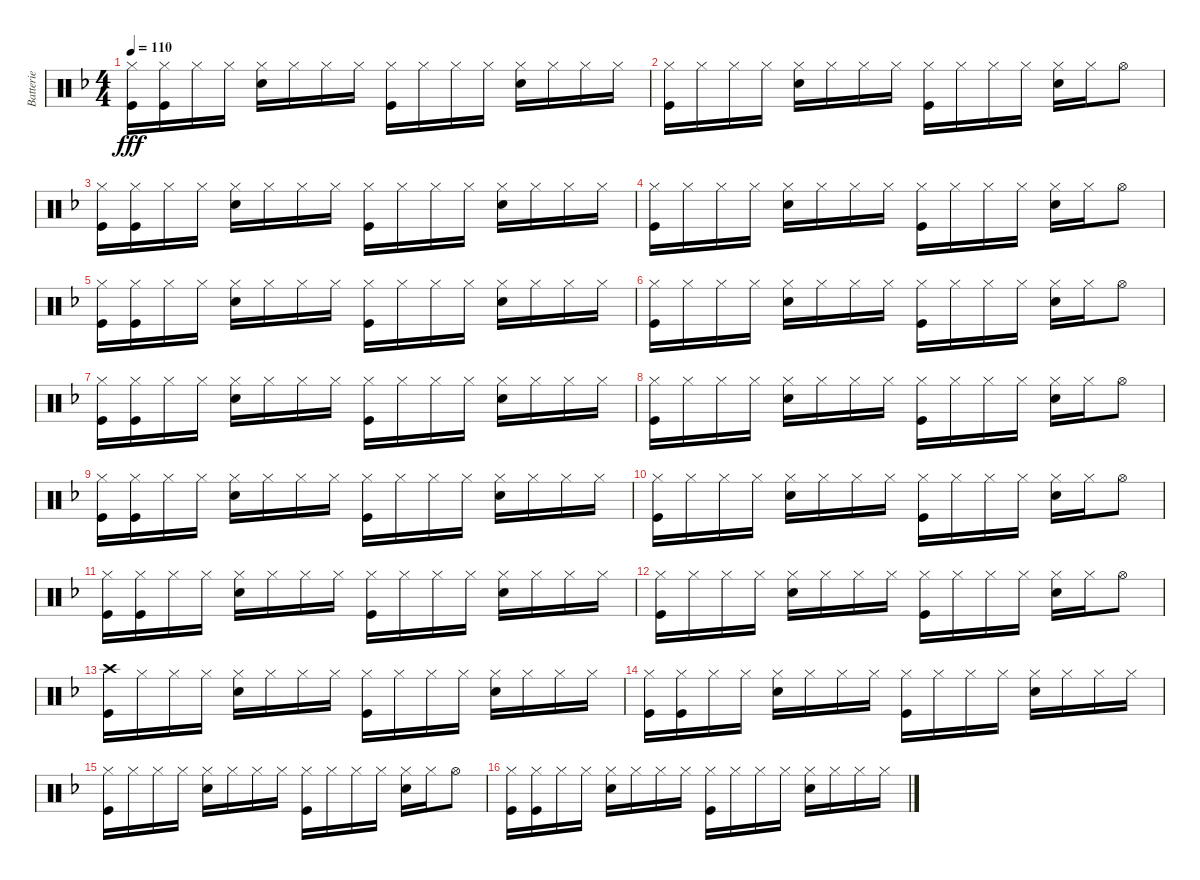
\track ("Batterie" "Batterie") {instrument percussion}
\staff {score}
\articulation defaults
\ts (4 4)
\tempo 110
\clef neutral
\ks f
("Hi-Hat (closed)" "Kick (hit)").16{dy fff} ("Hi-Hat (closed)" "Kick (hit)").16 "Hi-Hat (closed)".16 "Hi-Hat (closed)".16 ("Hi-Hat (closed)" "Snare (hit) 2").16 "Hi-Hat (closed)".16 "Hi-Hat (closed)".16 "Hi-Hat (closed)".16 ("Hi-Hat (closed)" "Kick (hit)").16 "Hi-Hat (closed)".16 "Hi-Hat (closed)".16 "Hi-Hat (closed)".16 ("Hi-Hat (closed)" "Snare (hit) 2").16 "Hi-Hat (closed)".16 "Hi-Hat (closed)".16 "Hi-Hat (closed)".16 |
("Hi-Hat (closed)" "Kick (hit)").16 "Hi-Hat (closed)".16 "Hi-Hat (closed)".16 "Hi-Hat (closed)".16 ("Hi-Hat (closed)" "Snare (hit) 2").16 "Hi-Hat (closed)".16 "Hi-Hat (closed)".16 "Hi-Hat (closed)".16 ("Hi-Hat (closed)" "Kick (hit)").16 "Hi-Hat (closed)".16 "Hi-Hat (closed)".16 "Hi-Hat (closed)".16 ("Hi-Hat (closed)" "Snare (hit) 2").16 "Hi-Hat (closed)".16 "Hi-Hat (open)".8 |
("Hi-Hat (closed)" "Kick (hit)").16 ("Hi-Hat (closed)" "Kick (hit)").16 "Hi-Hat (closed)".16 "Hi-Hat (closed)".16 ("Hi-Hat (closed)" "Snare (hit) 2").16 "Hi-Hat (closed)".16 "Hi-Hat (closed)".16 "Hi-Hat (closed)".16 ("Hi-Hat (closed)" "Kick (hit)").16 "Hi-Hat (closed)".16 "Hi-Hat (closed)".16 "Hi-Hat (closed)".16 ("Hi-Hat (closed)" "Snare (hit) 2").16 "Hi-Hat (closed)".16 "Hi-Hat (closed)".16 "Hi-Hat (closed)".16 |
("Hi-Hat (closed)" "Kick (hit)").16 "Hi-Hat (closed)".16 "Hi-Hat (closed)".16 "Hi-Hat (closed)".16 ("Hi-Hat (closed)" "Snare (hit) 2").16 "Hi-Hat (closed)".16 "Hi-Hat (closed)".16 "Hi-Hat (closed)".16 ("Hi-Hat (closed)" "Kick (hit)").16 "Hi-Hat (closed)".16 "Hi-Hat (closed)".16 "Hi-Hat (closed)".16 ("Hi-Hat (closed)" "Snare (hit) 2").16 "Hi-Hat (closed)".16 "Hi-Hat (open)".8 |
("Hi-Hat (closed)" "Kick (hit)").16 ("Hi-Hat (closed)" "Kick (hit)").16 "Hi-Hat (closed)".16 "Hi-Hat (closed)".16 ("Hi-Hat (closed)" "Snare (hit) 2").16 "Hi-Hat (closed)".16 "Hi-Hat (closed)".16 "Hi-Hat (closed)".16 ("Hi-Hat (closed)" "Kick (hit)").16 "Hi-Hat (closed)".16 "Hi-Hat (closed)".16 "Hi-Hat (closed)".16 ("Hi-Hat (closed)" "Snare (hit) 2").16 "Hi-Hat (closed)".16 "Hi-Hat (closed)".16 "Hi-Hat (closed)".16 |
("Hi-Hat (closed)" "Kick (hit)").16 "Hi-Hat (closed)".16 "Hi-Hat (closed)".16 "Hi-Hat (closed)".16 ("Hi-Hat (closed)" "Snare (hit) 2").16 "Hi-Hat (closed)".16 "Hi-Hat (closed)".16 "Hi-Hat (closed)".16 ("Hi-Hat (closed)" "Kick (hit)").16 "Hi-Hat (closed)".16 "Hi-Hat (closed)".16 "Hi-Hat (closed)".16 ("Hi-Hat (closed)" "Snare (hit) 2").16 "Hi-Hat (closed)".16 "Hi-Hat (open)".8 |
("Hi-Hat (closed)" "Kick (hit)").16 ("Hi-Hat (closed)" "Kick (hit)").16 "Hi-Hat (closed)".16 "Hi-Hat (closed)".16 ("Hi-Hat (closed)" "Snare (hit) 2").16 "Hi-Hat (closed)".16 "Hi-Hat (closed)".16 "Hi-Hat (closed)".16 ("Hi-Hat (closed)" "Kick (hit)").16 "Hi-Hat (closed)".16 "Hi-Hat (closed)".16 "Hi-Hat (closed)".16 ("Hi-Hat (closed)" "Snare (hit) 2").16 "Hi-Hat (closed)".16 "Hi-Hat (closed)".16 "Hi-Hat (closed)".16 |
("Hi-Hat (closed)" "Kick (hit)").16 "Hi-Hat (closed)".16 "Hi-Hat (closed)".16 "Hi-Hat (closed)".16 ("Hi-Hat (closed)" "Snare (hit) 2").16 "Hi-Hat (closed)".16 "Hi-Hat (closed)".16 "Hi-Hat (closed)".16 ("Hi-Hat (closed)" "Kick (hit)").16 "Hi-Hat (closed)".16 "Hi-Hat (closed)".16 "Hi-Hat (closed)".16 ("Hi-Hat (closed)" "Snare (hit) 2").16 "Hi-Hat (closed)".16 "Hi-Hat (open)".8 |
("Hi-Hat (closed)" "Kick (hit)").16 ("Hi-Hat (closed)" "Kick (hit)").16 "Hi-Hat (closed)".16 "Hi-Hat (closed)".16 ("Hi-Hat (closed)" "Snare (hit) 2").16 "Hi-Hat (closed)".16 "Hi-Hat (closed)".16 "Hi-Hat (closed)".16 ("Hi-Hat (closed)" "Kick (hit)").16 "Hi-Hat (closed)".16 "Hi-Hat (closed)".16 "Hi-Hat (closed)".16 ("Hi-Hat (closed)" "Snare (hit) 2").16 "Hi-Hat (closed)".16 "Hi-Hat (closed)".16 "Hi-Hat (closed)".16 |
("Hi-Hat (closed)" "Kick (hit)").16 "Hi-Hat (closed)".16 "Hi-Hat (closed)".16 "Hi-Hat (closed)".16 ("Hi-Hat (closed)" "Snare (hit) 2").16 "Hi-Hat (closed)".16 "Hi-Hat (closed)".16 "Hi-Hat (closed)".16 ("Hi-Hat (closed)" "Kick (hit)").16 "Hi-Hat (closed)".16 "Hi-Hat (closed)".16 "Hi-Hat (closed)".16 ("Hi-Hat (closed)" "Snare (hit) 2").16 "Hi-Hat (closed)".16 "Hi-Hat (open)".8 |
("Hi-Hat (closed)" "Kick (hit)").16 ("Hi-Hat (closed)" "Kick (hit)").16 "Hi-Hat (closed)".16 "Hi-Hat (closed)".16 ("Hi-Hat (closed)" "Snare (hit) 2").16 "Hi-Hat (closed)".16 "Hi-Hat (closed)".16 "Hi-Hat (closed)".16 ("Hi-Hat (closed)" "Kick (hit)").16 "Hi-Hat (closed)".16 "Hi-Hat (closed)".16 "Hi-Hat (closed)".16 ("Hi-Hat (closed)" "Snare (hit) 2").16 "Hi-Hat (closed)".16 "Hi-Hat (closed)".16 "Hi-Hat (closed)".16 |
("Hi-Hat (closed)" "Kick (hit)").16 "Hi-Hat (closed)".16 "Hi-Hat (closed)".16 "Hi-Hat (closed)".16 ("Hi-Hat (closed)" "Snare (hit) 2").16 "Hi-Hat (closed)".16 "Hi-Hat (closed)".16 "Hi-Hat (closed)".16 ("Hi-Hat (closed)" "Kick (hit)").16 "Hi-Hat (closed)".16 "Hi-Hat (closed)".16 "Hi-Hat (closed)".16 ("Hi-Hat (closed)" "Snare (hit) 2").16 "Hi-Hat (closed)".16 "Hi-Hat (open)".8 |
("Crash high (hit)" "Kick (hit)").16 "Hi-Hat (closed)".16 "Hi-Hat (closed)".16 "Hi-Hat (closed)".16 ("Hi-Hat (closed)" "Snare (hit) 2").16 "Hi-Hat (closed)".16 "Hi-Hat (closed)".16 "Hi-Hat (closed)".16 ("Hi-Hat (closed)" "Kick (hit)").16 "Hi-Hat (closed)".16 "Hi-Hat (closed)".16 "Hi-Hat (closed)".16 ("Hi-Hat (closed)" "Snare (hit) 2").16 "Hi-Hat (closed)".16 "Hi-Hat (closed)".16 "Hi-Hat (closed)".16 |
("Hi-Hat (closed)" "Kick (hit)").16 ("Hi-Hat (closed)" "Kick (hit)").16 "Hi-Hat (closed)".16 "Hi-Hat (closed)".16 ("Hi-Hat (closed)" "Snare (hit) 2").16 "Hi-Hat (closed)".16 "Hi-Hat (closed)".16 "Hi-Hat (closed)".16 ("Hi-Hat (closed)" "Kick (hit)").16 "Hi-Hat (closed)".16 "Hi-Hat (closed)".16 "Hi-Hat (closed)".16 ("Hi-Hat (closed)" "Snare (hit) 2").16 "Hi-Hat (closed)".16 "Hi-Hat (closed)".16 "Hi-Hat (closed)".16 |
("Hi-Hat (closed)" "Kick (hit)").16 "Hi-Hat (closed)".16 "Hi-Hat (closed)".16 "Hi-Hat (closed)".16 ("Hi-Hat (closed)" "Snare (hit) 2").16 "Hi-Hat (closed)".16 "Hi-Hat (closed)".16 "Hi-Hat (closed)".16 ("Hi-Hat (closed)" "Kick (hit)").16 "Hi-Hat (closed)".16 "Hi-Hat (closed)".16 "Hi-Hat (closed)".16 ("Hi-Hat (closed)" "Snare (hit) 2").16 "Hi-Hat (closed)".16 "Hi-Hat (open)".8 |
("Hi-Hat (closed)" "Kick (hit)").16 ("Hi-Hat (closed)" "Kick (hit)").16 "Hi-Hat (closed)".16 "Hi-Hat (closed)".16 ("Hi-Hat (closed)" "Snare (hit) 2").16 "Hi-Hat (closed)".16 "Hi-Hat (closed)".16 "Hi-Hat (closed)".16 ("Hi-Hat (closed)" "Kick (hit)").16 "Hi-Hat (closed)".16 "Hi-Hat (closed)".16 "Hi-Hat (closed)".16 ("Hi-Hat (closed)" "Snare (hit) 2").16 "Hi-Hat (closed)".16 "Hi-Hat (closed)".16 "Hi-Hat (closed)".16
